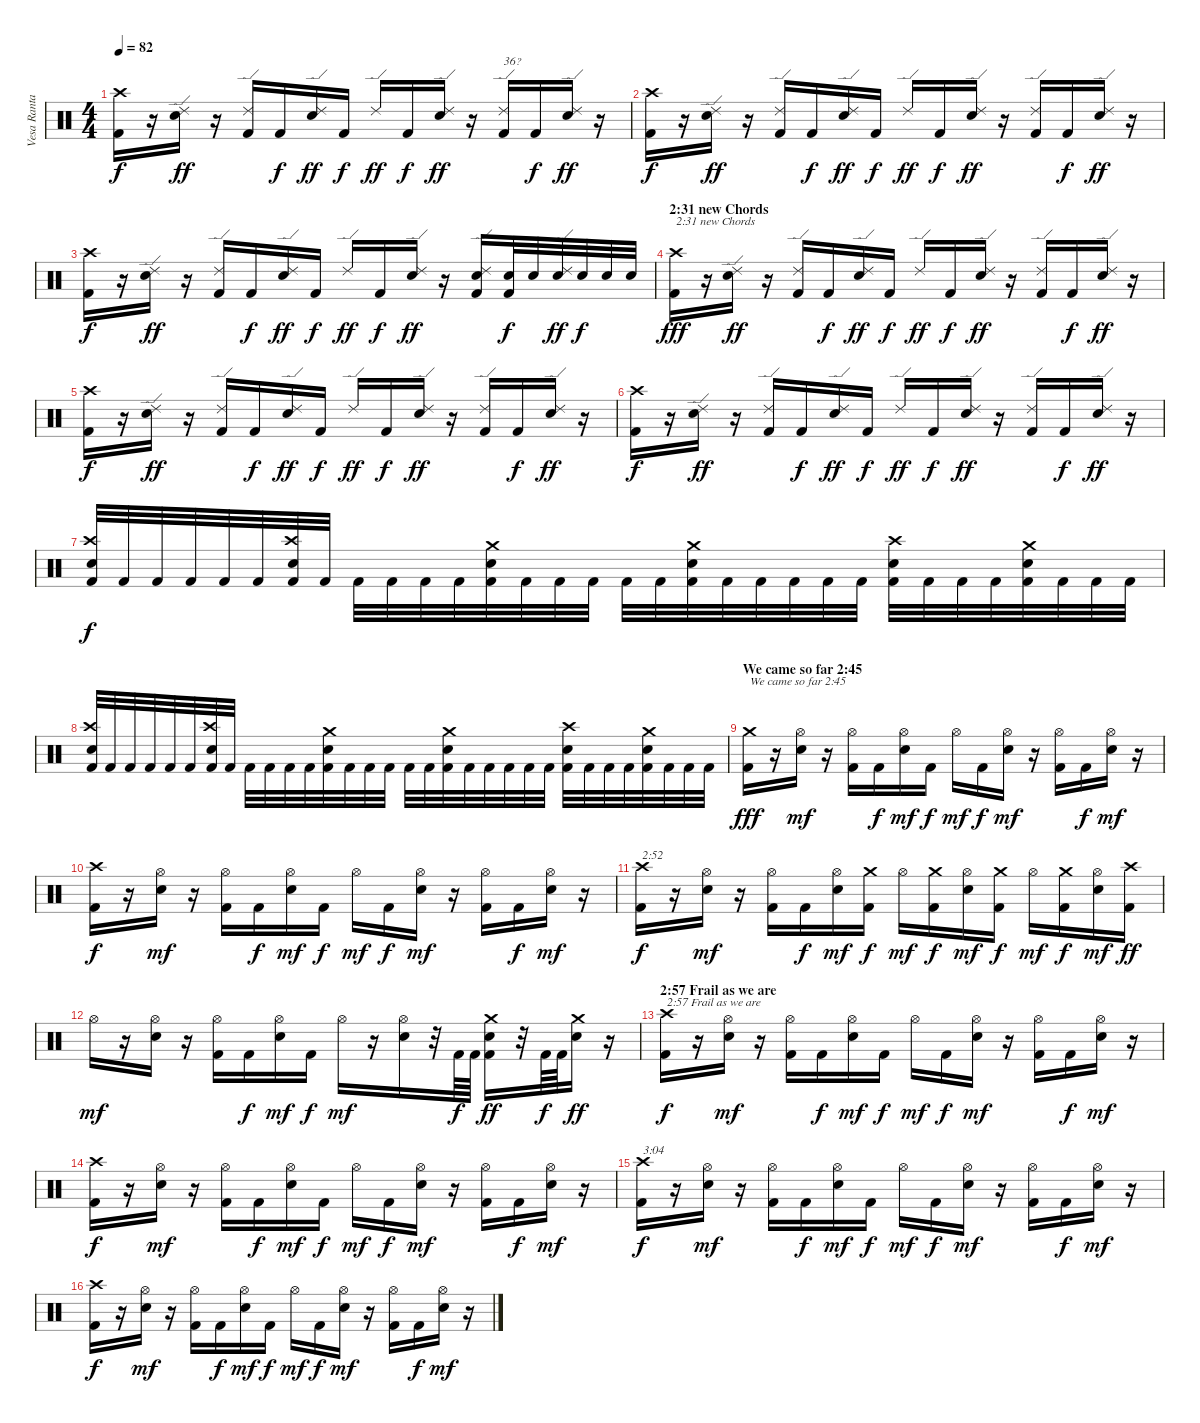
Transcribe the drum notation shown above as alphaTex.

\track ("Vesa Ranta (Drums)" "Vesa Ranta") {instrument percussion}
\staff {score}
\articulation defaults
\ts (4 4)
\tempo 82
\clef neutral
\ks c
("Kick (hit) 2" "Crash high (hit)").16{dy f} r.16 ("Electric Snare (hit)" "Ride (edge) 2").16{dy ff} r.16 ("Kick (hit) 2" "Ride (edge) 2").16 "Kick (hit) 2".16{dy f} ("Electric Snare (hit)" "Ride (edge) 2").16{dy ff} "Kick (hit) 2".16{dy f} "Ride (edge) 2".16{dy ff} "Kick (hit) 2".16{dy f} ("Electric Snare (hit)" "Ride (edge) 2").16{dy ff} r.16 ("Kick (hit) 2" "Ride (edge) 2").16{txt "36?"} "Kick (hit) 2".16{dy f} ("Electric Snare (hit)" "Ride (edge) 2").16{dy ff} r.16 |
("Kick (hit) 2" "Crash high (hit)").16{dy f} r.16 ("Electric Snare (hit)" "Ride (edge) 2").16{dy ff} r.16 ("Kick (hit) 2" "Ride (edge) 2").16 "Kick (hit) 2".16{dy f} ("Electric Snare (hit)" "Ride (edge) 2").16{dy ff} "Kick (hit) 2".16{dy f} "Ride (edge) 2".16{dy ff} "Kick (hit) 2".16{dy f} ("Electric Snare (hit)" "Ride (edge) 2").16{dy ff} r.16 ("Kick (hit) 2" "Ride (edge) 2").16 "Kick (hit) 2".16{dy f} ("Electric Snare (hit)" "Ride (edge) 2").16{dy ff} r.16 |
("Kick (hit) 2" "Crash high (hit)").16{dy f} r.16 ("Electric Snare (hit)" "Ride (edge) 2").16{dy ff} r.16 ("Kick (hit) 2" "Ride (edge) 2").16 "Kick (hit) 2".16{dy f} ("Electric Snare (hit)" "Ride (edge) 2").16{dy ff} "Kick (hit) 2".16{dy f} "Ride (edge) 2".16{dy ff} "Kick (hit) 2".16{dy f} ("Electric Snare (hit)" "Ride (edge) 2").16{dy ff} r.16 ("Kick (hit) 2" "Electric Snare (hit)" "Ride (edge) 2").16 ("Kick (hit) 2" "Electric Snare (hit)").32{dy f} "Electric Snare (hit)".32 ("Electric Snare (hit)" "Ride (edge) 2").32{dy ff} "Electric Snare (hit)".32{dy f} "Electric Snare (hit)".32 "Electric Snare (hit)".32 |
\section ("" "2:31 new Chords ")
("Kick (hit) 2" "Crash high (hit)").16{txt "2:31 new Chords " dy fff} r.16 ("Electric Snare (hit)" "Ride (edge) 2").16{dy ff} r.16 ("Kick (hit) 2" "Ride (edge) 2").16 "Kick (hit) 2".16{dy f} ("Electric Snare (hit)" "Ride (edge) 2").16{dy ff} "Kick (hit) 2".16{dy f} "Ride (edge) 2".16{dy ff} "Kick (hit) 2".16{dy f} ("Electric Snare (hit)" "Ride (edge) 2").16{dy ff} r.16 ("Kick (hit) 2" "Ride (edge) 2").16 "Kick (hit) 2".16{dy f} ("Electric Snare (hit)" "Ride (edge) 2").16{dy ff} r.16 |
("Kick (hit) 2" "Crash high (hit)").16{dy f} r.16 ("Electric Snare (hit)" "Ride (edge) 2").16{dy ff} r.16 ("Kick (hit) 2" "Ride (edge) 2").16 "Kick (hit) 2".16{dy f} ("Electric Snare (hit)" "Ride (edge) 2").16{dy ff} "Kick (hit) 2".16{dy f} "Ride (edge) 2".16{dy ff} "Kick (hit) 2".16{dy f} ("Electric Snare (hit)" "Ride (edge) 2").16{dy ff} r.16 ("Kick (hit) 2" "Ride (edge) 2").16 "Kick (hit) 2".16{dy f} ("Electric Snare (hit)" "Ride (edge) 2").16{dy ff} r.16 |
("Kick (hit) 2" "Crash high (hit)").16{dy f} r.16 ("Electric Snare (hit)" "Ride (edge) 2").16{dy ff} r.16 ("Kick (hit) 2" "Ride (edge) 2").16 "Kick (hit) 2".16{dy f} ("Electric Snare (hit)" "Ride (edge) 2").16{dy ff} "Kick (hit) 2".16{dy f} "Ride (edge) 2".16{dy ff} "Kick (hit) 2".16{dy f} ("Electric Snare (hit)" "Ride (edge) 2").16{dy ff} r.16 ("Kick (hit) 2" "Ride (edge) 2").16 "Kick (hit) 2".16{dy f} ("Electric Snare (hit)" "Ride (edge) 2").16{dy ff} r.16 |
("Kick (hit) 2" "Electric Snare (hit)" "Crash high (hit)").32{dy f} "Kick (hit) 2".32 "Kick (hit) 2".32 "Kick (hit) 2".32 "Kick (hit) 2".32 "Kick (hit) 2".32 ("Kick (hit) 2" "Electric Snare (hit)" "Crash high (hit)").32 "Kick (hit) 2".32 "Kick (hit) 2".32 "Kick (hit) 2".32 "Kick (hit) 2".32 "Kick (hit) 2".32 ("Kick (hit) 2" "Electric Snare (hit)" "Crash medium (hit)").32 "Kick (hit) 2".32 "Kick (hit) 2".32 "Kick (hit) 2".32 "Kick (hit) 2".32 "Kick (hit) 2".32 ("Kick (hit) 2" "Electric Snare (hit)" "Crash medium (hit)").32 "Kick (hit) 2".32 "Kick (hit) 2".32 "Kick (hit) 2".32 "Kick (hit) 2".32 "Kick (hit) 2".32 ("Kick (hit) 2" "Electric Snare (hit)" "Crash high (hit)").32 "Kick (hit) 2".32 "Kick (hit) 2".32 "Kick (hit) 2".32 ("Kick (hit) 2" "Electric Snare (hit)" "Crash medium (hit)").32 "Kick (hit) 2".32 "Kick (hit) 2".32 "Kick (hit) 2".32 |
("Kick (hit) 2" "Electric Snare (hit)" "Crash high (hit)").32 "Kick (hit) 2".32 "Kick (hit) 2".32 "Kick (hit) 2".32 "Kick (hit) 2".32 "Kick (hit) 2".32 ("Kick (hit) 2" "Electric Snare (hit)" "Crash high (hit)").32 "Kick (hit) 2".32 "Kick (hit) 2".32 "Kick (hit) 2".32 "Kick (hit) 2".32 "Kick (hit) 2".32 ("Kick (hit) 2" "Electric Snare (hit)" "Crash medium (hit)").32 "Kick (hit) 2".32 "Kick (hit) 2".32 "Kick (hit) 2".32 "Kick (hit) 2".32 "Kick (hit) 2".32 ("Kick (hit) 2" "Electric Snare (hit)" "Crash medium (hit)").32 "Kick (hit) 2".32 "Kick (hit) 2".32 "Kick (hit) 2".32 "Kick (hit) 2".32 "Kick (hit) 2".32 ("Kick (hit) 2" "Electric Snare (hit)" "Crash high (hit)").32 "Kick (hit) 2".32 "Kick (hit) 2".32 "Kick (hit) 2".32 ("Kick (hit) 2" "Electric Snare (hit)" "Crash medium (hit)").32 "Kick (hit) 2".32 "Kick (hit) 2".32 "Kick (hit) 2".32 |
\section ("" "We came so far 2:45")
("Kick (hit) 2" "Crash medium (hit)").16{txt "We came so far 2:45" dy fff} r.16 ("Electric Snare (hit)" "Hi-Hat (open)").16{dy mf} r.16 ("Kick (hit) 2" "Hi-Hat (open)").16 "Kick (hit) 2".16{dy f} ("Electric Snare (hit)" "Hi-Hat (open)").16{dy mf} "Kick (hit) 2".16{dy f} "Hi-Hat (open)".16{dy mf} "Kick (hit) 2".16{dy f} ("Electric Snare (hit)" "Hi-Hat (open)").16{dy mf} r.16 ("Kick (hit) 2" "Hi-Hat (open)").16 "Kick (hit) 2".16{dy f} ("Electric Snare (hit)" "Hi-Hat (open)").16{dy mf} r.16 |
("Kick (hit) 2" "Crash high (hit)").16{dy f} r.16 ("Electric Snare (hit)" "Hi-Hat (open)").16{dy mf} r.16 ("Kick (hit) 2" "Hi-Hat (open)").16 "Kick (hit) 2".16{dy f} ("Electric Snare (hit)" "Hi-Hat (open)").16{dy mf} "Kick (hit) 2".16{dy f} "Hi-Hat (open)".16{dy mf} "Kick (hit) 2".16{dy f} ("Electric Snare (hit)" "Hi-Hat (open)").16{dy mf} r.16 ("Kick (hit) 2" "Hi-Hat (open)").16 "Kick (hit) 2".16{dy f} ("Electric Snare (hit)" "Hi-Hat (open)").16{dy mf} r.16 |
("Kick (hit) 2" "Crash high (hit)").16{txt "2:52" dy f} r.16 ("Electric Snare (hit)" "Hi-Hat (open)").16{dy mf} r.16 ("Kick (hit) 2" "Hi-Hat (open)").16 "Kick (hit) 2".16{dy f} ("Electric Snare (hit)" "Hi-Hat (open)").16{dy mf} ("Kick (hit) 2" "Crash medium (hit)").16{dy f} "Hi-Hat (open)".16{dy mf} ("Kick (hit) 2" "Crash medium (hit)").16{dy f} ("Electric Snare (hit)" "Hi-Hat (open)").16{dy mf} ("Kick (hit) 2" "Crash medium (hit)").16{dy f} "Hi-Hat (open)".16{dy mf} ("Kick (hit) 2" "Crash medium (hit)").16{dy f} ("Electric Snare (hit)" "Hi-Hat (open)").16{dy mf} ("Kick (hit) 2" "Crash high (hit)").16{dy ff} |
"Hi-Hat (open)".16{dy mf} r.16 ("Electric Snare (hit)" "Hi-Hat (open)").16 r.16 ("Kick (hit) 2" "Hi-Hat (open)").16 "Kick (hit) 2".16{dy f} ("Electric Snare (hit)" "Hi-Hat (open)").16{dy mf} "Kick (hit) 2".16{dy f} "Hi-Hat (open)".16{dy mf} r.16 ("Electric Snare (hit)" "Hi-Hat (open)").16 r.32 "Kick (hit) 2".64{dy f} "Kick (hit) 2".64 ("Kick (hit) 2" "Electric Snare (hit)" "Crash medium (hit)").16{dy ff} r.32 "Kick (hit) 2".64{dy f} "Kick (hit) 2".64 ("Electric Snare (hit)" "Crash medium (hit)").16{dy ff} r.16 |
\section ("" "2:57 Frail as we are")
("Kick (hit) 2" "Crash high (hit)").16{txt "2:57 Frail as we are" dy f} r.16 ("Electric Snare (hit)" "Hi-Hat (open)").16{dy mf} r.16 ("Kick (hit) 2" "Hi-Hat (open)").16 "Kick (hit) 2".16{dy f} ("Electric Snare (hit)" "Hi-Hat (open)").16{dy mf} "Kick (hit) 2".16{dy f} "Hi-Hat (open)".16{dy mf} "Kick (hit) 2".16{dy f} ("Electric Snare (hit)" "Hi-Hat (open)").16{dy mf} r.16 ("Kick (hit) 2" "Hi-Hat (open)").16 "Kick (hit) 2".16{dy f} ("Electric Snare (hit)" "Hi-Hat (open)").16{dy mf} r.16 |
("Kick (hit) 2" "Crash high (hit)").16{dy f} r.16 ("Electric Snare (hit)" "Hi-Hat (open)").16{dy mf} r.16 ("Kick (hit) 2" "Hi-Hat (open)").16 "Kick (hit) 2".16{dy f} ("Electric Snare (hit)" "Hi-Hat (open)").16{dy mf} "Kick (hit) 2".16{dy f} "Hi-Hat (open)".16{dy mf} "Kick (hit) 2".16{dy f} ("Electric Snare (hit)" "Hi-Hat (open)").16{dy mf} r.16 ("Kick (hit) 2" "Hi-Hat (open)").16 "Kick (hit) 2".16{dy f} ("Electric Snare (hit)" "Hi-Hat (open)").16{dy mf} r.16 |
("Kick (hit) 2" "Crash high (hit)").16{txt "3:04" dy f} r.16 ("Electric Snare (hit)" "Hi-Hat (open)").16{dy mf} r.16 ("Kick (hit) 2" "Hi-Hat (open)").16 "Kick (hit) 2".16{dy f} ("Electric Snare (hit)" "Hi-Hat (open)").16{dy mf} "Kick (hit) 2".16{dy f} "Hi-Hat (open)".16{dy mf} "Kick (hit) 2".16{dy f} ("Electric Snare (hit)" "Hi-Hat (open)").16{dy mf} r.16 ("Kick (hit) 2" "Hi-Hat (open)").16 "Kick (hit) 2".16{dy f} ("Electric Snare (hit)" "Hi-Hat (open)").16{dy mf} r.16 |
("Kick (hit) 2" "Crash high (hit)").16{dy f} r.16 ("Electric Snare (hit)" "Hi-Hat (open)").16{dy mf} r.16 ("Kick (hit) 2" "Hi-Hat (open)").16 "Kick (hit) 2".16{dy f} ("Electric Snare (hit)" "Hi-Hat (open)").16{dy mf} "Kick (hit) 2".16{dy f} "Hi-Hat (open)".16{dy mf} "Kick (hit) 2".16{dy f} ("Electric Snare (hit)" "Hi-Hat (open)").16{dy mf} r.16 ("Kick (hit) 2" "Hi-Hat (open)").16 "Kick (hit) 2".16{dy f} ("Electric Snare (hit)" "Hi-Hat (open)").16{dy mf} r.16
